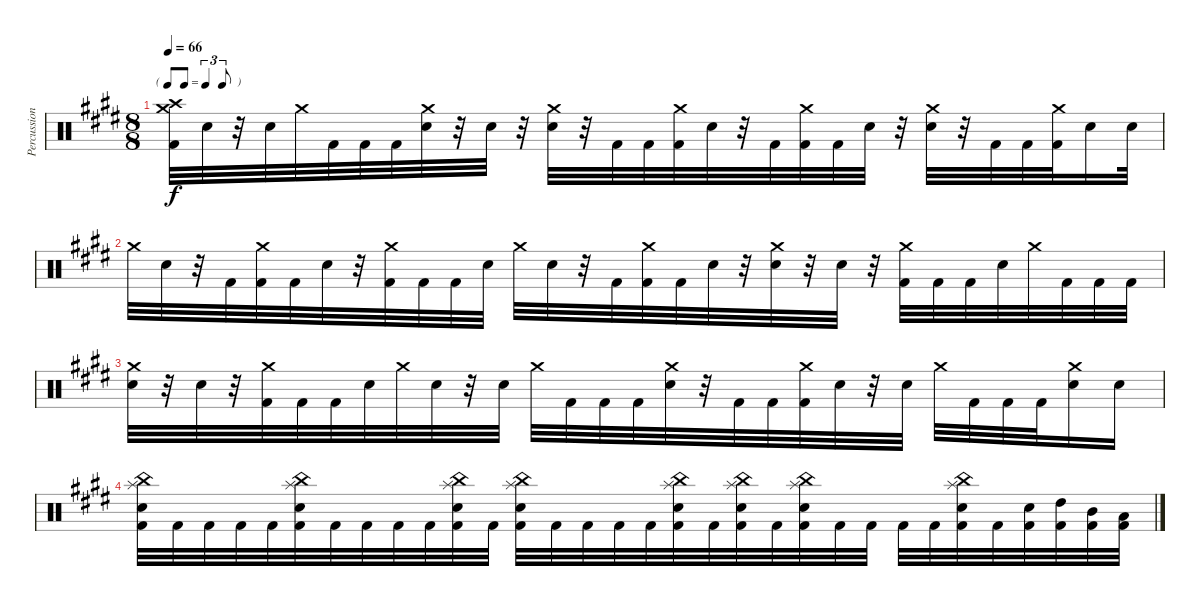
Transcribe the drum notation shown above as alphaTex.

\track ("Percussion" "Percussion") {instrument percussion}
\staff {score}
\articulation defaults
\ts (8 8)
\tf triplet8th
\tempo 66
\clef neutral
\ks c#minor
("Crash medium (hit)" "Crash high (hit)" "Kick (hit) 2").32{dy f} "Electric Snare (hit)".32 r.32 "Electric Snare (hit)".32 "Crash medium (hit)".32 "Kick (hit) 2".32 "Kick (hit) 2".32 "Kick (hit) 2".32 ("Crash medium (hit)" "Electric Snare (hit)").32 r.32 "Electric Snare (hit)".32 r.32 ("Crash medium (hit)" "Electric Snare (hit)").32 r.32 "Kick (hit) 2".32 "Kick (hit) 2".32 ("Crash medium (hit)" "Kick (hit) 2").32 "Electric Snare (hit)".32 r.32 "Kick (hit) 2".32 ("Crash medium (hit)" "Kick (hit) 2").32 "Kick (hit) 2".32 "Electric Snare (hit)".32 r.32 ("Crash medium (hit)" "Electric Snare (hit)").32 r.32 "Kick (hit) 2".32 "Kick (hit) 2".32 ("Crash medium (hit)" "Kick (hit) 2").32 "Electric Snare (hit)".16 "Electric Snare (hit)".32 |
"Crash medium (hit)".32 "Electric Snare (hit)".32 r.32 "Kick (hit) 2".32 ("Crash medium (hit)" "Kick (hit) 2").32 "Kick (hit) 2".32 "Electric Snare (hit)".32 r.32 ("Crash medium (hit)" "Kick (hit) 2").32 "Kick (hit) 2".32 "Kick (hit) 2".32 "Electric Snare (hit)".32 "Crash medium (hit)".32 "Electric Snare (hit)".32 r.32 "Kick (hit) 2".32 ("Crash medium (hit)" "Kick (hit) 2").32 "Kick (hit) 2".32 "Electric Snare (hit)".32 r.32 ("Crash medium (hit)" "Electric Snare (hit)").32 r.32 "Electric Snare (hit)".32 r.32 ("Crash medium (hit)" "Kick (hit) 2").32 "Kick (hit) 2".32 "Kick (hit) 2".32 "Electric Snare (hit)".32 "Crash medium (hit)".32 "Kick (hit) 2".32 "Kick (hit) 2".32 "Kick (hit) 2".32 |
("Crash medium (hit)" "Electric Snare (hit)").32 r.32 "Electric Snare (hit)".32 r.32 ("Crash medium (hit)" "Kick (hit) 2").32 "Kick (hit) 2".32 "Kick (hit) 2".32 "Electric Snare (hit)".32 "Crash medium (hit)".32 "Electric Snare (hit)".32 r.32 "Electric Snare (hit)".32 "Crash medium (hit)".32 "Kick (hit) 2".32 "Kick (hit) 2".32 "Kick (hit) 2".32 ("Crash medium (hit)" "Electric Snare (hit)").32 r.32 "Kick (hit) 2".32 "Kick (hit) 2".32 ("Crash medium (hit)" "Kick (hit) 2").32 "Electric Snare (hit)".32 r.32 "Electric Snare (hit)".32 "Crash medium (hit)".32 "Kick (hit) 2".32 "Kick (hit) 2".32 "Kick (hit) 2".32 ("Crash medium (hit)" "Electric Snare (hit)").16 "Electric Snare (hit)".16 |
("Splash (hit)" "China (hit)" "Electric Snare (hit)" "Kick (hit) 2").32 "Kick (hit) 2".32 "Kick (hit) 2".32 "Kick (hit) 2".32 "Kick (hit) 2".32 ("Splash (hit)" "China (hit)" "Electric Snare (hit)" "Kick (hit) 2").32 "Kick (hit) 2".32 "Kick (hit) 2".32 "Kick (hit) 2".32 "Kick (hit) 2".32 ("Splash (hit)" "China (hit)" "Electric Snare (hit)" "Kick (hit) 2").32 "Kick (hit) 2".32 ("Splash (hit)" "China (hit)" "Electric Snare (hit)" "Kick (hit) 2").32 "Kick (hit) 2".32 "Kick (hit) 2".32 "Kick (hit) 2".32 "Kick (hit) 2".32 ("Splash (hit)" "China (hit)" "Electric Snare (hit)" "Kick (hit) 2").32 "Kick (hit) 2".32 ("Splash (hit)" "China (hit)" "Electric Snare (hit)" "Kick (hit) 2").32 "Kick (hit) 2".32 ("Splash (hit)" "China (hit)" "Electric Snare (hit)" "Kick (hit) 2").32 "Kick (hit) 2".32 "Kick (hit) 2".32 "Kick (hit) 2".32 "Kick (hit) 2".32 ("Splash (hit)" "China (hit)" "Electric Snare (hit)" "Kick (hit) 2").32 "Kick (hit) 2".32 ("Electric Snare (hit)" "Kick (hit) 2").32 ("High Tom (hit)" "Kick (hit) 2").32 ("Mid Tom (hit)" "Kick (hit) 2").32 ("Low Floor Tom (hit)" "Kick (hit) 2").32
